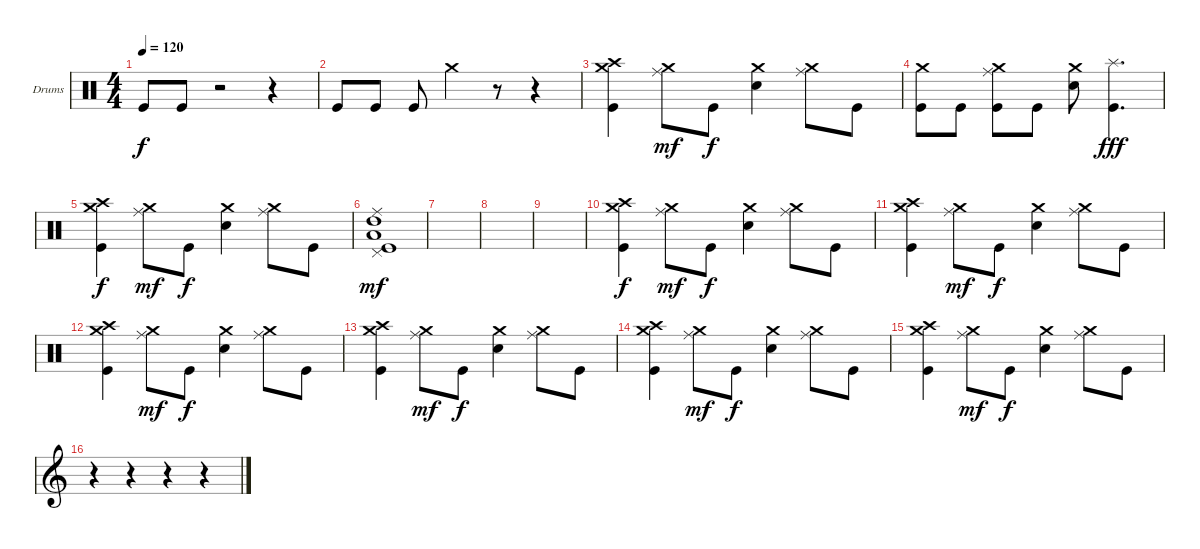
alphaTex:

\defaultSystemsLayout 4
\bracketExtendMode groupsimilarinstruments
\firstSystemTrackNameOrientation horizontal
\otherSystemsTrackNameOrientation horizontal
\track ("Drumkit" "Drums") {instrument percussion}
\staff {score}
\articulation defaults
\ts (4 4)
\tempo 120
\clef neutral
\ks c "Kick (hit)".8{dy f} "Kick (hit)".8
r.2 r.4 |
"Kick (hit)".8 "Kick (hit)".8 "Kick (hit)".8 "Crash medium (hit)".4 r.8 r.4 |
("Crash medium (hit)" "Crash high (hit)" "Kick (hit)").4 ("Crash medium (hit)" "Ride (middle)").8{dy mf} "Kick (hit)".8{dy f} ("Crash medium (hit)" "Snare (hit) 2").4 ("Crash medium (hit)" "Ride (middle)").8 "Kick (hit)".8 |
("Crash medium (hit)" "Kick (hit)").8 "Kick (hit)".8 ("Crash medium (hit)" "Ride (middle)" "Kick (hit)").8 "Kick (hit)".8 ("Crash medium (hit)" "Snare (hit) 2").8 ("Splash (hit)" "Kick (hit)").4{d dy fff} |
("Crash medium (hit)" "Crash high (hit)" "Kick (hit)").4{dy f} ("Crash medium (hit)" "Ride (middle)").8{dy mf} "Kick (hit)".8{dy f} ("Crash medium (hit)" "Snare (hit) 2").4 ("Crash medium (hit)" "Ride (middle)").8 "Kick (hit)".8 |
("High Tom (hit)" "Low Tom (hit)" "Kick (hit)" "Ride (middle)" "Pedal Hi-Hat (hit)").1{dy mf} |
|
|
|
("Crash medium (hit)" "Crash high (hit)" "Kick (hit)").4{dy f} ("Crash medium (hit)" "Ride (middle)").8{dy mf} "Kick (hit)".8{dy f} ("Crash medium (hit)" "Snare (hit) 2").4 ("Crash medium (hit)" "Ride (middle)").8 "Kick (hit)".8 |
("Crash medium (hit)" "Crash high (hit)" "Kick (hit)").4 ("Crash medium (hit)" "Ride (middle)").8{dy mf} "Kick (hit)".8{dy f} ("Crash medium (hit)" "Snare (hit) 2").4 ("Crash medium (hit)" "Ride (middle)").8 "Kick (hit)".8 |
("Crash medium (hit)" "Crash high (hit)" "Kick (hit)").4 ("Crash medium (hit)" "Ride (middle)").8{dy mf} "Kick (hit)".8{dy f} ("Crash medium (hit)" "Snare (hit) 2").4 ("Crash medium (hit)" "Ride (middle)").8 "Kick (hit)".8 |
("Crash medium (hit)" "Crash high (hit)" "Kick (hit)").4 ("Crash medium (hit)" "Ride (middle)").8{dy mf} "Kick (hit)".8{dy f} ("Crash medium (hit)" "Snare (hit) 2").4 ("Crash medium (hit)" "Ride (middle)").8 "Kick (hit)".8 |
("Crash medium (hit)" "Crash high (hit)" "Kick (hit)").4 ("Crash medium (hit)" "Ride (middle)").8{dy mf} "Kick (hit)".8{dy f} ("Crash medium (hit)" "Snare (hit) 2").4 ("Crash medium (hit)" "Ride (middle)").8 "Kick (hit)".8 |
("Crash medium (hit)" "Crash high (hit)" "Kick (hit)").4 ("Crash medium (hit)" "Ride (middle)").8{dy mf} "Kick (hit)".8{dy f} ("Crash medium (hit)" "Snare (hit) 2").4 ("Crash medium (hit)" "Ride (middle)").8 "Kick (hit)".8 |
\clef g2
r.4 r.4 r.4 r.4
